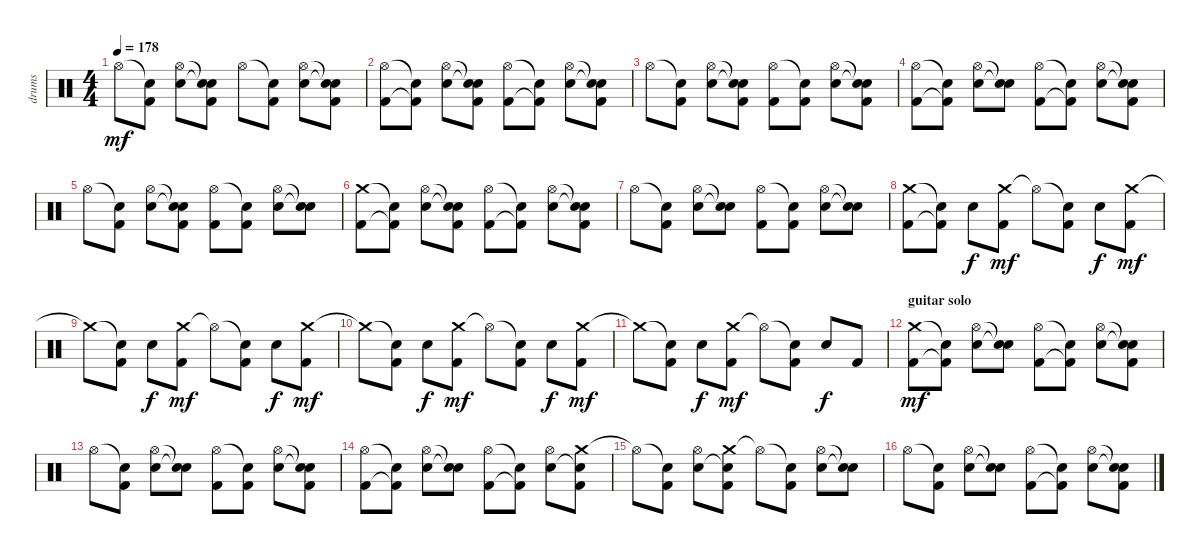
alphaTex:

\track ("drums" "drums") {instrument percussion}
\staff {score}
\articulation defaults
\ts (4 4)
\tempo 178
\clef neutral
\ks aminor "Hi-Hat (open)".8{dy mf}
("Snare (hit)"{t} "Kick (hit) 2").8 ("Hi-Hat (open)" "Snare (hit) 2").8 ("Snare (hit)"{t} "Snare (hit)"{t} "Kick (hit) 2").8 "Hi-Hat (open)".8 ("Snare (hit)"{t} "Kick (hit) 2").8 ("Hi-Hat (open)" "Snare (hit) 2").8 ("Snare (hit)"{t} "Snare (hit)"{t} "Kick (hit) 2").8 |
("Hi-Hat (open)" "Kick (hit) 2").8 ("Snare (hit)"{t} "Kick (hit) 2"{t}).8 ("Hi-Hat (open)" "Snare (hit) 2").8 ("Snare (hit)"{t} "Snare (hit)"{t} "Kick (hit) 2").8 ("Hi-Hat (open)" "Kick (hit) 2").8 ("Snare (hit)"{t} "Kick (hit) 2"{t}).8 ("Hi-Hat (open)" "Snare (hit) 2").8 ("Snare (hit)"{t} "Snare (hit)"{t} "Kick (hit) 2").8 |
"Hi-Hat (open)".8 ("Snare (hit)"{t} "Kick (hit) 2").8 ("Hi-Hat (open)" "Snare (hit) 2").8 ("Snare (hit)"{t} "Snare (hit)"{t} "Kick (hit) 2").8 ("Hi-Hat (open)" "Kick (hit) 2").8 ("Snare (hit)"{t} "Kick (hit) 2").8 ("Hi-Hat (open)" "Snare (hit) 2").8 ("Snare (hit)"{t} "Snare (hit)"{t} "Kick (hit) 2").8 |
("Hi-Hat (open)" "Kick (hit) 2").8 ("Snare (hit)"{t} "Kick (hit) 2"{t}).8 ("Hi-Hat (open)" "Snare (hit) 2").8 ("Snare (hit)"{t} "Snare (hit)"{t}).8 ("Hi-Hat (open)" "Kick (hit) 2").8 ("Snare (hit)"{t} "Kick (hit) 2"{t}).8 ("Hi-Hat (open)" "Snare (hit) 2").8 ("Snare (hit)"{t} "Snare (hit)"{t} "Kick (hit) 2").8 |
"Hi-Hat (open)".8 ("Snare (hit)"{t} "Kick (hit) 2").8 ("Hi-Hat (open)" "Snare (hit) 2").8 ("Snare (hit)"{t} "Snare (hit)"{t} "Kick (hit) 2").8 ("Hi-Hat (open)" "Kick (hit) 2").8 ("Snare (hit)"{t} "Kick (hit) 2").8 ("Hi-Hat (open)" "Snare (hit) 2").8 ("Snare (hit)"{t} "Snare (hit)"{t}).8 |
("Crash medium (hit)" "Kick (hit) 2").8 ("Snare (hit)"{t} "Kick (hit) 2"{t}).8 ("Hi-Hat (open)" "Snare (hit) 2").8 ("Snare (hit)"{t} "Snare (hit)"{t} "Kick (hit) 2").8 ("Hi-Hat (open)" "Kick (hit) 2").8 ("Snare (hit)"{t} "Kick (hit) 2"{t}).8 ("Hi-Hat (open)" "Snare (hit) 2").8 ("Snare (hit)"{t} "Snare (hit)"{t} "Kick (hit) 2").8 |
"Hi-Hat (open)".8 ("Snare (hit)"{t} "Kick (hit) 2").8 ("Hi-Hat (open)" "Snare (hit) 2").8 ("Snare (hit)"{t} "Snare (hit)"{t}).8 ("Hi-Hat (open)" "Kick (hit) 2").8 ("Snare (hit)"{t} "Kick (hit) 2").8 ("Hi-Hat (open)" "Snare (hit) 2").8 ("Snare (hit)"{t} "Snare (hit)"{t}).8 |
("Crash medium (hit)" "Kick (hit) 2").8 ("Snare (hit)"{t} "Kick (hit) 2"{t}).8 "Snare (hit) 2".8{dy f} ("Crash medium (hit)" "Kick (hit) 2").8{dy mf} "Hi-Hat (open)"{t}.8 ("Snare (hit)"{t} "Kick (hit) 2").8 "Snare (hit) 2".8{dy f} ("Crash medium (hit)" "Kick (hit) 2").8{dy mf} |
"Crash medium (hit)"{t}.8 ("Snare (hit)"{t} "Kick (hit) 2").8 "Snare (hit) 2".8{dy f} ("Crash medium (hit)" "Kick (hit) 2").8{dy mf} "Hi-Hat (open)"{t}.8 ("Snare (hit)"{t} "Kick (hit) 2").8 "Snare (hit) 2".8{dy f} ("Crash medium (hit)" "Kick (hit) 2").8{dy mf} |
"Crash medium (hit)"{t}.8 ("Snare (hit)"{t} "Kick (hit) 2").8 "Snare (hit) 2".8{dy f} ("Crash medium (hit)" "Kick (hit) 2").8{dy mf} "Hi-Hat (open)"{t}.8 ("Snare (hit)"{t} "Kick (hit) 2").8 "Snare (hit) 2".8{dy f} ("Crash medium (hit)" "Kick (hit) 2").8{dy mf} |
"Crash medium (hit)"{t}.8 ("Snare (hit)"{t} "Kick (hit) 2").8 "Snare (hit) 2".8{dy f} ("Crash medium (hit)" "Kick (hit) 2").8{dy mf} "Hi-Hat (open)"{t}.8 ("Snare (hit)"{t} "Kick (hit) 2").8 "Snare (hit) 2".8{dy f} "Kick (hit) 2".8 |
\section ("" "guitar solo")
("Crash medium (hit)" "Kick (hit) 2").8{dy mf} ("Snare (hit)"{t} "Kick (hit) 2"{t}).8 ("Hi-Hat (open)" "Snare (hit) 2").8 ("Snare (hit)"{t} "Snare (hit)"{t}).8 ("Hi-Hat (open)" "Kick (hit) 2").8 ("Snare (hit)"{t} "Kick (hit) 2"{t}).8 ("Hi-Hat (open)" "Snare (hit) 2").8 ("Snare (hit)"{t} "Snare (hit)"{t} "Kick (hit) 2").8 |
"Hi-Hat (open)".8 ("Snare (hit)"{t} "Kick (hit) 2").8 ("Hi-Hat (open)" "Snare (hit) 2").8 ("Snare (hit)"{t} "Snare (hit)"{t}).8 ("Hi-Hat (open)" "Kick (hit) 2").8 ("Snare (hit)"{t} "Kick (hit) 2").8 ("Hi-Hat (open)" "Snare (hit) 2").8 ("Snare (hit)"{t} "Snare (hit)"{t} "Kick (hit) 2").8 |
("Hi-Hat (open)" "Kick (hit) 2").8 ("Snare (hit)"{t} "Kick (hit) 2"{t}).8 ("Hi-Hat (open)" "Snare (hit) 2").8 ("Snare (hit)"{t} "Snare (hit)"{t}).8 ("Hi-Hat (open)" "Kick (hit) 2").8 ("Snare (hit)"{t} "Kick (hit) 2"{t}).8 ("Hi-Hat (open)" "Snare (hit) 2").8 ("Crash medium (hit)" "Snare (hit)"{t} "Kick (hit) 2").8 |
"Hi-Hat (open)"{t}.8 ("Snare (hit)"{t} "Kick (hit) 2").8 ("Hi-Hat (open)" "Snare (hit) 2").8 ("Crash medium (hit)" "Snare (hit)"{t} "Kick (hit) 2").8 "Hi-Hat (open)"{t}.8 ("Snare (hit)"{t} "Kick (hit) 2").8 ("Hi-Hat (open)" "Snare (hit) 2").8 ("Snare (hit)"{t} "Snare (hit)"{t}).8 |
"Hi-Hat (open)".8 ("Snare (hit)"{t} "Kick (hit) 2").8 ("Hi-Hat (open)" "Snare (hit) 2").8 ("Snare (hit)"{t} "Snare (hit)"{t}).8 ("Hi-Hat (open)" "Kick (hit) 2").8 ("Snare (hit)"{t} "Kick (hit) 2"{t}).8 ("Hi-Hat (open)" "Snare (hit) 2").8 ("Snare (hit)"{t} "Snare (hit)"{t} "Kick (hit) 2").8
